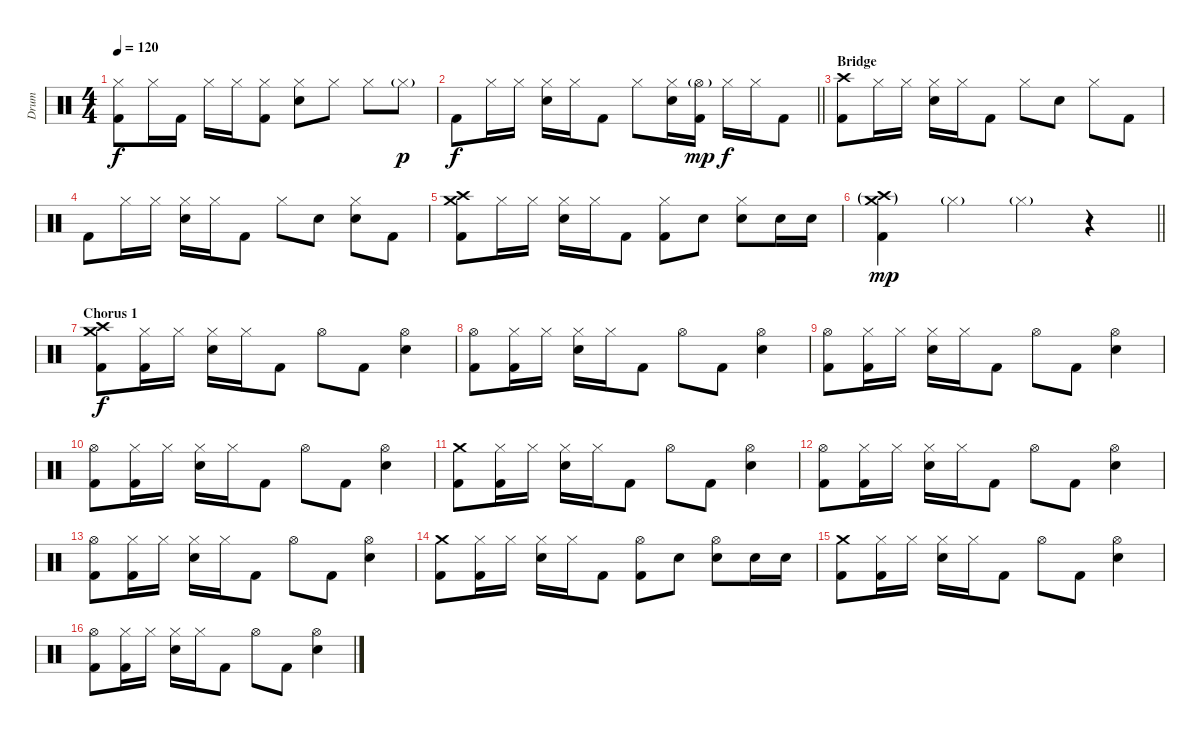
\track ("Drum" "Drum") {instrument percussion}
\staff {score}
\articulation defaults
\ts (4 4)
\tempo 120
\clef neutral
\ks c
("Hi-Hat (closed)" "Kick (hit) 2").8{dy f} "Hi-Hat (closed)".16 "Kick (hit) 2".16 "Hi-Hat (closed)".16 "Hi-Hat (closed)".16 ("Hi-Hat (closed)" "Kick (hit) 2").8 ("Hi-Hat (closed)" "Electric Snare (hit)").8 "Hi-Hat (closed)".8 "Hi-Hat (closed)".8 "Hi-Hat (closed)"{g}.8{dy p} |
\barLineRight lightlight "Kick (hit) 2".8{dy f} "Hi-Hat (closed)".16 "Hi-Hat (closed)".16
("Hi-Hat (closed)" "Electric Snare (hit)").16 "Hi-Hat (closed)".16 "Kick (hit) 2".8 "Hi-Hat (closed)".8 ("Hi-Hat (closed)" "Electric Snare (hit)").16 ("Hi-Hat (open)"{g} "Kick (hit) 2").16{dy mp} "Hi-Hat (closed)".16{dy f} "Hi-Hat (closed)".16 "Kick (hit) 2".8 |
\section ("" "Bridge")
("Crash high (hit)" "Kick (hit) 2").8 "Hi-Hat (closed)".16 "Hi-Hat (closed)".16 ("Hi-Hat (closed)" "Electric Snare (hit)").16 "Hi-Hat (closed)".16 "Kick (hit) 2".8 "Hi-Hat (closed)".8 "Electric Snare (hit)".8 "Hi-Hat (closed)".8 "Kick (hit) 2".8 |
"Kick (hit) 2".8 "Hi-Hat (closed)".16 "Hi-Hat (closed)".16 ("Hi-Hat (closed)" "Electric Snare (hit)").16 "Hi-Hat (closed)".16 "Kick (hit) 2".8 "Hi-Hat (closed)".8 "Electric Snare (hit)".8 ("Hi-Hat (closed)" "Electric Snare (hit)").8 "Kick (hit) 2".8 |
("Crash medium (hit)" "Crash high (hit)" "Kick (hit) 2").8 "Hi-Hat (closed)".16 "Hi-Hat (closed)".16 ("Hi-Hat (closed)" "Electric Snare (hit)").16 "Hi-Hat (closed)".16 "Kick (hit) 2".8 ("Hi-Hat (closed)" "Kick (hit) 2").8 "Electric Snare (hit)".8 ("Hi-Hat (closed)" "Electric Snare (hit)").8 "Electric Snare (hit)".16 "Electric Snare (hit)".16 |
\barLineRight lightlight
("Crash medium (hit)"{g} "Crash high (hit)"{g} "Kick (hit) 2").4{dy mp} "Hi-Hat (closed)"{g}.4 "Hi-Hat (closed)"{g}.4 r.4 |
\section ("" "Chorus 1")
("Crash medium (hit)" "Crash high (hit)" "Kick (hit) 2").8{dy f} ("Hi-Hat (closed)" "Kick (hit) 2").16 "Hi-Hat (closed)".16 ("Hi-Hat (closed)" "Electric Snare (hit)").16 "Hi-Hat (closed)".16 "Kick (hit) 2".8 "Hi-Hat (open)".8 "Kick (hit) 2".8 ("Hi-Hat (open)" "Electric Snare (hit)").4 |
("Hi-Hat (open)" "Kick (hit) 2").8 ("Hi-Hat (closed)" "Kick (hit) 2").16 "Hi-Hat (closed)".16 ("Hi-Hat (closed)" "Electric Snare (hit)").16 "Hi-Hat (closed)".16 "Kick (hit) 2".8 "Hi-Hat (open)".8 "Kick (hit) 2".8 ("Hi-Hat (open)" "Electric Snare (hit)").4 |
("Hi-Hat (open)" "Kick (hit) 2").8 ("Hi-Hat (closed)" "Kick (hit) 2").16 "Hi-Hat (closed)".16 ("Hi-Hat (closed)" "Electric Snare (hit)").16 "Hi-Hat (closed)".16 "Kick (hit) 2".8 "Hi-Hat (open)".8 "Kick (hit) 2".8 ("Hi-Hat (open)" "Electric Snare (hit)").4 |
("Hi-Hat (open)" "Kick (hit) 2").8 ("Hi-Hat (closed)" "Kick (hit) 2").16 "Hi-Hat (closed)".16 ("Hi-Hat (closed)" "Electric Snare (hit)").16 "Hi-Hat (closed)".16 "Kick (hit) 2".8 "Hi-Hat (open)".8 "Kick (hit) 2".8 ("Hi-Hat (open)" "Electric Snare (hit)").4 |
("Crash medium (hit)" "Kick (hit) 2").8 ("Hi-Hat (closed)" "Kick (hit) 2").16 "Hi-Hat (closed)".16 ("Hi-Hat (closed)" "Electric Snare (hit)").16 "Hi-Hat (closed)".16 "Kick (hit) 2".8 "Hi-Hat (open)".8 "Kick (hit) 2".8 ("Hi-Hat (open)" "Electric Snare (hit)").4 |
("Hi-Hat (open)" "Kick (hit) 2").8 ("Hi-Hat (closed)" "Kick (hit) 2").16 "Hi-Hat (closed)".16 ("Hi-Hat (closed)" "Electric Snare (hit)").16 "Hi-Hat (closed)".16 "Kick (hit) 2".8 "Hi-Hat (open)".8 "Kick (hit) 2".8 ("Hi-Hat (open)" "Electric Snare (hit)").4 |
("Hi-Hat (open)" "Kick (hit) 2").8 ("Hi-Hat (closed)" "Kick (hit) 2").16 "Hi-Hat (closed)".16 ("Hi-Hat (closed)" "Electric Snare (hit)").16 "Hi-Hat (closed)".16 "Kick (hit) 2".8 "Hi-Hat (open)".8 "Kick (hit) 2".8 ("Hi-Hat (open)" "Electric Snare (hit)").4 |
("Crash medium (hit)" "Kick (hit) 2").8 ("Hi-Hat (closed)" "Kick (hit) 2").16 "Hi-Hat (closed)".16 ("Hi-Hat (closed)" "Electric Snare (hit)").16 "Hi-Hat (closed)".16 "Kick (hit) 2".8 ("Hi-Hat (open)" "Kick (hit) 2").8 "Electric Snare (hit)".8 ("Hi-Hat (open)" "Electric Snare (hit)").8 "Electric Snare (hit)".16 "Electric Snare (hit)".16 |
("Crash medium (hit)" "Kick (hit) 2").8 ("Hi-Hat (closed)" "Kick (hit) 2").16 "Hi-Hat (closed)".16 ("Hi-Hat (closed)" "Electric Snare (hit)").16 "Hi-Hat (closed)".16 "Kick (hit) 2".8 "Hi-Hat (open)".8 "Kick (hit) 2".8 ("Hi-Hat (open)" "Electric Snare (hit)").4 |
("Hi-Hat (open)" "Kick (hit) 2").8 ("Hi-Hat (closed)" "Kick (hit) 2").16 "Hi-Hat (closed)".16 ("Hi-Hat (closed)" "Electric Snare (hit)").16 "Hi-Hat (closed)".16 "Kick (hit) 2".8 "Hi-Hat (open)".8 "Kick (hit) 2".8 ("Hi-Hat (open)" "Electric Snare (hit)").4
